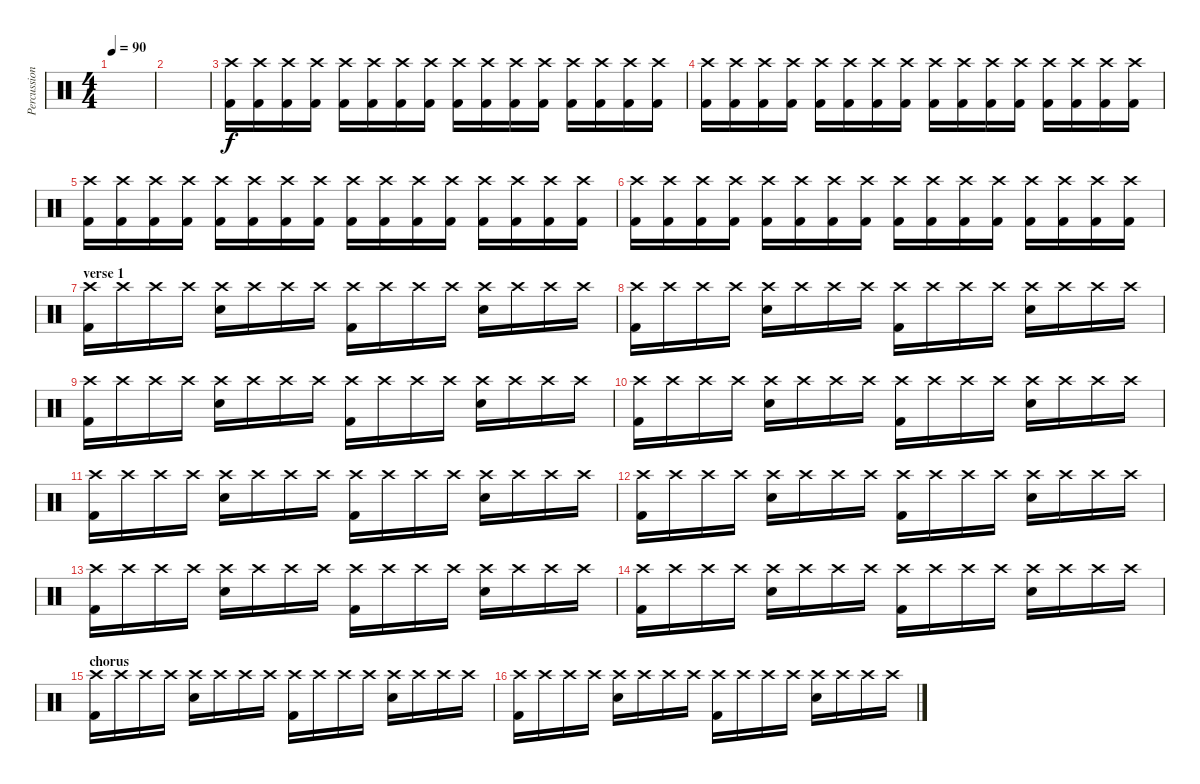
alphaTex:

\track ("Percussion" "Percussion") {instrument percussion}
\staff {score}
\articulation defaults
\ts (4 4)
\tempo 90
\clef neutral
\ks c
|
|
("Crash high (hit)" "Kick (hit) 2").16 ("Crash high (hit)" "Kick (hit) 2").16 ("Crash high (hit)" "Kick (hit) 2").16 ("Crash high (hit)" "Kick (hit) 2").16 ("Crash high (hit)" "Kick (hit) 2").16 ("Crash high (hit)" "Kick (hit) 2").16 ("Crash high (hit)" "Kick (hit) 2").16 ("Crash high (hit)" "Kick (hit) 2").16 ("Crash high (hit)" "Kick (hit) 2").16 ("Crash high (hit)" "Kick (hit) 2").16 ("Crash high (hit)" "Kick (hit) 2").16 ("Crash high (hit)" "Kick (hit) 2").16 ("Crash high (hit)" "Kick (hit) 2").16 ("Crash high (hit)" "Kick (hit) 2").16 ("Crash high (hit)" "Kick (hit) 2").16 ("Crash high (hit)" "Kick (hit) 2").16 |
("Crash high (hit)" "Kick (hit) 2").16 ("Crash high (hit)" "Kick (hit) 2").16 ("Crash high (hit)" "Kick (hit) 2").16 ("Crash high (hit)" "Kick (hit) 2").16 ("Crash high (hit)" "Kick (hit) 2").16 ("Crash high (hit)" "Kick (hit) 2").16 ("Crash high (hit)" "Kick (hit) 2").16 ("Crash high (hit)" "Kick (hit) 2").16 ("Crash high (hit)" "Kick (hit) 2").16 ("Crash high (hit)" "Kick (hit) 2").16 ("Crash high (hit)" "Kick (hit) 2").16 ("Crash high (hit)" "Kick (hit) 2").16 ("Crash high (hit)" "Kick (hit) 2").16 ("Crash high (hit)" "Kick (hit) 2").16 ("Crash high (hit)" "Kick (hit) 2").16 ("Crash high (hit)" "Kick (hit) 2").16 |
("Crash high (hit)" "Kick (hit) 2").16 ("Crash high (hit)" "Kick (hit) 2").16 ("Crash high (hit)" "Kick (hit) 2").16 ("Crash high (hit)" "Kick (hit) 2").16 ("Crash high (hit)" "Kick (hit) 2").16 ("Crash high (hit)" "Kick (hit) 2").16 ("Crash high (hit)" "Kick (hit) 2").16 ("Crash high (hit)" "Kick (hit) 2").16 ("Crash high (hit)" "Kick (hit) 2").16 ("Crash high (hit)" "Kick (hit) 2").16 ("Crash high (hit)" "Kick (hit) 2").16 ("Crash high (hit)" "Kick (hit) 2").16 ("Crash high (hit)" "Kick (hit) 2").16 ("Crash high (hit)" "Kick (hit) 2").16 ("Crash high (hit)" "Kick (hit) 2").16 ("Crash high (hit)" "Kick (hit) 2").16 |
("Crash high (hit)" "Kick (hit) 2").16 ("Crash high (hit)" "Kick (hit) 2").16 ("Crash high (hit)" "Kick (hit) 2").16 ("Crash high (hit)" "Kick (hit) 2").16 ("Crash high (hit)" "Kick (hit) 2").16 ("Crash high (hit)" "Kick (hit) 2").16 ("Crash high (hit)" "Kick (hit) 2").16 ("Crash high (hit)" "Kick (hit) 2").16 ("Crash high (hit)" "Kick (hit) 2").16 ("Crash high (hit)" "Kick (hit) 2").16 ("Crash high (hit)" "Kick (hit) 2").16 ("Crash high (hit)" "Kick (hit) 2").16 ("Crash high (hit)" "Kick (hit) 2").16 ("Crash high (hit)" "Kick (hit) 2").16 ("Crash high (hit)" "Kick (hit) 2").16 ("Crash high (hit)" "Kick (hit) 2").16 |
\section ("" "verse 1")
("Crash high (hit)" "Kick (hit) 2").16 "Crash high (hit)".16 "Crash high (hit)".16 "Crash high (hit)".16 ("Crash high (hit)" "Electric Snare (hit)").16 "Crash high (hit)".16 "Crash high (hit)".16 "Crash high (hit)".16 ("Crash high (hit)" "Kick (hit) 2").16 "Crash high (hit)".16 "Crash high (hit)".16 "Crash high (hit)".16 ("Crash high (hit)" "Electric Snare (hit)").16 "Crash high (hit)".16 "Crash high (hit)".16 "Crash high (hit)".16 |
("Crash high (hit)" "Kick (hit) 2").16 "Crash high (hit)".16 "Crash high (hit)".16 "Crash high (hit)".16 ("Crash high (hit)" "Electric Snare (hit)").16 "Crash high (hit)".16 "Crash high (hit)".16 "Crash high (hit)".16 ("Crash high (hit)" "Kick (hit) 2").16 "Crash high (hit)".16 "Crash high (hit)".16 "Crash high (hit)".16 ("Crash high (hit)" "Electric Snare (hit)").16 "Crash high (hit)".16 "Crash high (hit)".16 "Crash high (hit)".16 |
("Crash high (hit)" "Kick (hit) 2").16 "Crash high (hit)".16 "Crash high (hit)".16 "Crash high (hit)".16 ("Crash high (hit)" "Electric Snare (hit)").16 "Crash high (hit)".16 "Crash high (hit)".16 "Crash high (hit)".16 ("Crash high (hit)" "Kick (hit) 2").16 "Crash high (hit)".16 "Crash high (hit)".16 "Crash high (hit)".16 ("Crash high (hit)" "Electric Snare (hit)").16 "Crash high (hit)".16 "Crash high (hit)".16 "Crash high (hit)".16 |
("Crash high (hit)" "Kick (hit) 2").16 "Crash high (hit)".16 "Crash high (hit)".16 "Crash high (hit)".16 ("Crash high (hit)" "Electric Snare (hit)").16 "Crash high (hit)".16 "Crash high (hit)".16 "Crash high (hit)".16 ("Crash high (hit)" "Kick (hit) 2").16 "Crash high (hit)".16 "Crash high (hit)".16 "Crash high (hit)".16 ("Crash high (hit)" "Electric Snare (hit)").16 "Crash high (hit)".16 "Crash high (hit)".16 "Crash high (hit)".16 |
("Crash high (hit)" "Kick (hit) 2").16 "Crash high (hit)".16 "Crash high (hit)".16 "Crash high (hit)".16 ("Crash high (hit)" "Electric Snare (hit)").16 "Crash high (hit)".16 "Crash high (hit)".16 "Crash high (hit)".16 ("Crash high (hit)" "Kick (hit) 2").16 "Crash high (hit)".16 "Crash high (hit)".16 "Crash high (hit)".16 ("Crash high (hit)" "Electric Snare (hit)").16 "Crash high (hit)".16 "Crash high (hit)".16 "Crash high (hit)".16 |
("Crash high (hit)" "Kick (hit) 2").16 "Crash high (hit)".16 "Crash high (hit)".16 "Crash high (hit)".16 ("Crash high (hit)" "Electric Snare (hit)").16 "Crash high (hit)".16 "Crash high (hit)".16 "Crash high (hit)".16 ("Crash high (hit)" "Kick (hit) 2").16 "Crash high (hit)".16 "Crash high (hit)".16 "Crash high (hit)".16 ("Crash high (hit)" "Electric Snare (hit)").16 "Crash high (hit)".16 "Crash high (hit)".16 "Crash high (hit)".16 |
("Crash high (hit)" "Kick (hit) 2").16 "Crash high (hit)".16 "Crash high (hit)".16 "Crash high (hit)".16 ("Crash high (hit)" "Electric Snare (hit)").16 "Crash high (hit)".16 "Crash high (hit)".16 "Crash high (hit)".16 ("Crash high (hit)" "Kick (hit) 2").16 "Crash high (hit)".16 "Crash high (hit)".16 "Crash high (hit)".16 ("Crash high (hit)" "Electric Snare (hit)").16 "Crash high (hit)".16 "Crash high (hit)".16 "Crash high (hit)".16 |
("Crash high (hit)" "Kick (hit) 2").16 "Crash high (hit)".16 "Crash high (hit)".16 "Crash high (hit)".16 ("Crash high (hit)" "Electric Snare (hit)").16 "Crash high (hit)".16 "Crash high (hit)".16 "Crash high (hit)".16 ("Crash high (hit)" "Kick (hit) 2").16 "Crash high (hit)".16 "Crash high (hit)".16 "Crash high (hit)".16 ("Crash high (hit)" "Electric Snare (hit)").16 "Crash high (hit)".16 "Crash high (hit)".16 "Crash high (hit)".16 |
\section ("" "chorus")
("Crash high (hit)" "Kick (hit) 2").16 "Crash high (hit)".16 "Crash high (hit)".16 "Crash high (hit)".16 ("Crash high (hit)" "Electric Snare (hit)").16 "Crash high (hit)".16 "Crash high (hit)".16 "Crash high (hit)".16 ("Crash high (hit)" "Kick (hit) 2").16 "Crash high (hit)".16 "Crash high (hit)".16 "Crash high (hit)".16 ("Crash high (hit)" "Electric Snare (hit)").16 "Crash high (hit)".16 "Crash high (hit)".16 "Crash high (hit)".16 |
("Crash high (hit)" "Kick (hit) 2").16 "Crash high (hit)".16 "Crash high (hit)".16 "Crash high (hit)".16 ("Crash high (hit)" "Electric Snare (hit)").16 "Crash high (hit)".16 "Crash high (hit)".16 "Crash high (hit)".16 ("Crash high (hit)" "Kick (hit) 2").16 "Crash high (hit)".16 "Crash high (hit)".16 "Crash high (hit)".16 ("Crash high (hit)" "Electric Snare (hit)").16 "Crash high (hit)".16 "Crash high (hit)".16 "Crash high (hit)".16
